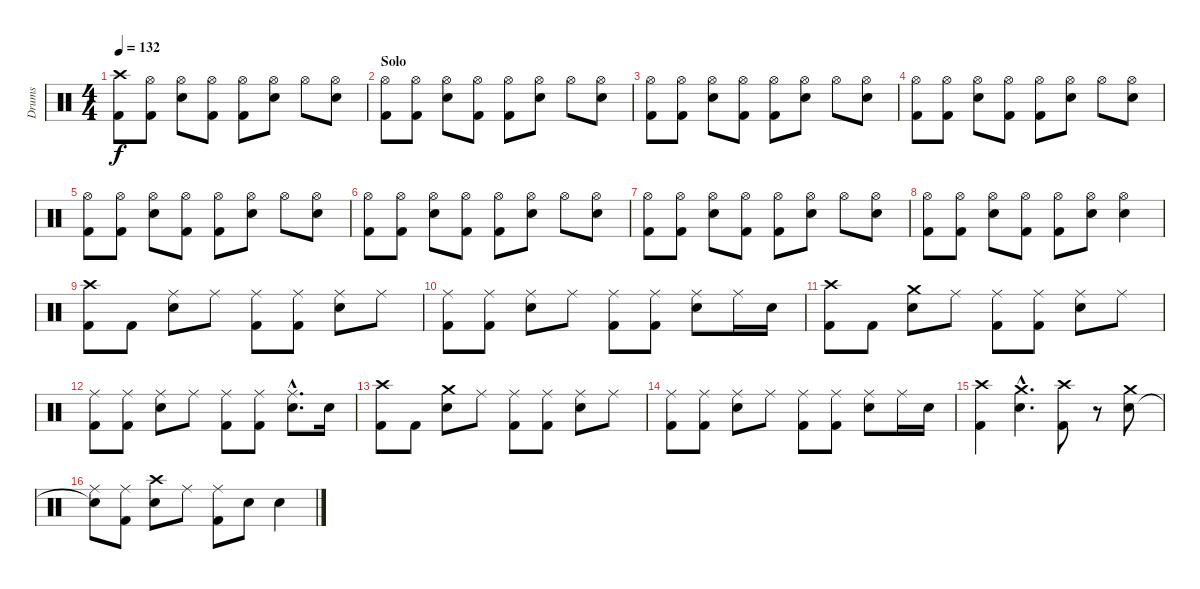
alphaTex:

\track ("Drums" "Drums") {instrument percussion}
\staff {score}
\articulation defaults
\ts (4 4)
\tempo 132
\clef neutral
\ks c
("Crash high (hit)" "Kick (hit) 2").8{dy f} ("Hi-Hat (open)" "Kick (hit) 2").8 ("Hi-Hat (open)" "Electric Snare (hit)").8 ("Hi-Hat (open)" "Kick (hit) 2").8 ("Hi-Hat (open)" "Kick (hit) 2").8 ("Hi-Hat (open)" "Electric Snare (hit)").8 "Hi-Hat (open)".8 ("Hi-Hat (open)" "Electric Snare (hit)").8 |
\section ("" "Solo")
("Hi-Hat (open)" "Kick (hit) 2").8 ("Hi-Hat (open)" "Kick (hit) 2").8 ("Hi-Hat (open)" "Electric Snare (hit)").8 ("Hi-Hat (open)" "Kick (hit) 2").8 ("Hi-Hat (open)" "Kick (hit) 2").8 ("Hi-Hat (open)" "Electric Snare (hit)").8 "Hi-Hat (open)".8 ("Hi-Hat (open)" "Electric Snare (hit)").8 |
("Hi-Hat (open)" "Kick (hit) 2").8 ("Hi-Hat (open)" "Kick (hit) 2").8 ("Hi-Hat (open)" "Electric Snare (hit)").8 ("Hi-Hat (open)" "Kick (hit) 2").8 ("Hi-Hat (open)" "Kick (hit) 2").8 ("Hi-Hat (open)" "Electric Snare (hit)").8 "Hi-Hat (open)".8 ("Hi-Hat (open)" "Electric Snare (hit)").8 |
("Hi-Hat (open)" "Kick (hit) 2").8 ("Hi-Hat (open)" "Kick (hit) 2").8 ("Hi-Hat (open)" "Electric Snare (hit)").8 ("Hi-Hat (open)" "Kick (hit) 2").8 ("Hi-Hat (open)" "Kick (hit) 2").8 ("Hi-Hat (open)" "Electric Snare (hit)").8 "Hi-Hat (open)".8 ("Hi-Hat (open)" "Electric Snare (hit)").8 |
("Hi-Hat (open)" "Kick (hit) 2").8 ("Hi-Hat (open)" "Kick (hit) 2").8 ("Hi-Hat (open)" "Electric Snare (hit)").8 ("Hi-Hat (open)" "Kick (hit) 2").8 ("Hi-Hat (open)" "Kick (hit) 2").8 ("Hi-Hat (open)" "Electric Snare (hit)").8 "Hi-Hat (open)".8 ("Hi-Hat (open)" "Electric Snare (hit)").8 |
("Hi-Hat (open)" "Kick (hit) 2").8 ("Hi-Hat (open)" "Kick (hit) 2").8 ("Hi-Hat (open)" "Electric Snare (hit)").8 ("Hi-Hat (open)" "Kick (hit) 2").8 ("Hi-Hat (open)" "Kick (hit) 2").8 ("Hi-Hat (open)" "Electric Snare (hit)").8 "Hi-Hat (open)".8 ("Hi-Hat (open)" "Electric Snare (hit)").8 |
("Hi-Hat (open)" "Kick (hit) 2").8 ("Hi-Hat (open)" "Kick (hit) 2").8 ("Hi-Hat (open)" "Electric Snare (hit)").8 ("Hi-Hat (open)" "Kick (hit) 2").8 ("Hi-Hat (open)" "Kick (hit) 2").8 ("Hi-Hat (open)" "Electric Snare (hit)").8 "Hi-Hat (open)".8 ("Hi-Hat (open)" "Electric Snare (hit)").8 |
("Hi-Hat (open)" "Kick (hit) 2").8 ("Hi-Hat (open)" "Kick (hit) 2").8 ("Hi-Hat (open)" "Electric Snare (hit)").8 ("Hi-Hat (open)" "Kick (hit) 2").8 ("Hi-Hat (open)" "Kick (hit) 2").8 ("Hi-Hat (open)" "Electric Snare (hit)").8 ("Hi-Hat (open)" "Electric Snare (hit)").4 |
("Crash high (hit)" "Kick (hit) 2").8 "Kick (hit) 2".8 ("Ride (middle)" "Electric Snare (hit)").8 "Ride (middle)".8 ("Ride (middle)" "Kick (hit) 2").8 ("Ride (middle)" "Kick (hit) 2").8 ("Ride (middle)" "Electric Snare (hit)").8 "Ride (middle)".8 |
("Ride (middle)" "Kick (hit) 2").8 ("Ride (middle)" "Kick (hit) 2").8 ("Ride (middle)" "Electric Snare (hit)").8 "Ride (middle)".8 ("Ride (middle)" "Kick (hit) 2").8 ("Ride (middle)" "Kick (hit) 2").8 ("Ride (middle)" "Electric Snare (hit)").8 "Ride (middle)".16 "Electric Snare (hit)".16 |
("Crash high (hit)" "Kick (hit) 2").8 "Kick (hit) 2".8 ("Crash medium (hit)" "Electric Snare (hit)").8 "Ride (middle)".8 ("Ride (middle)" "Kick (hit) 2").8 ("Ride (middle)" "Kick (hit) 2").8 ("Ride (middle)" "Electric Snare (hit)").8 "Ride (middle)".8 |
("Ride (middle)" "Kick (hit) 2").8 ("Ride (middle)" "Kick (hit) 2").8 ("Ride (middle)" "Electric Snare (hit)").8 "Ride (middle)".8 ("Ride (middle)" "Kick (hit) 2").8 ("Ride (middle)" "Kick (hit) 2").8 ("Ride (middle)"{hac} "Electric Snare (hit)"{hac}).8{d} "Electric Snare (hit)".16 |
("Crash high (hit)" "Kick (hit) 2").8 "Kick (hit) 2".8 ("Crash medium (hit)" "Electric Snare (hit)").8 "Ride (middle)".8 ("Ride (middle)" "Kick (hit) 2").8 ("Ride (middle)" "Kick (hit) 2").8 ("Ride (middle)" "Electric Snare (hit)").8 "Ride (middle)".8 |
("Ride (middle)" "Kick (hit) 2").8 ("Ride (middle)" "Kick (hit) 2").8 ("Ride (middle)" "Electric Snare (hit)").8 "Ride (middle)".8 ("Ride (middle)" "Kick (hit) 2").8 ("Ride (middle)" "Kick (hit) 2").8 ("Ride (middle)" "Electric Snare (hit)").8 "Ride (middle)".16 "Electric Snare (hit)".16 |
("Crash high (hit)" "Kick (hit) 2").4 ("Crash medium (hit)"{hac} "Electric Snare (hit)"{hac}).4{d} ("Crash high (hit)" "Kick (hit) 2").8 r.8 ("Crash medium (hit)" "Electric Snare (hit)").8 |
("Ride (middle)" "Snare (hit)"{t}).8 ("Ride (middle)" "Kick (hit) 2").8 ("Crash high (hit)" "Electric Snare (hit)").8 "Ride (middle)".8 ("Ride (middle)" "Kick (hit) 2").8 "Electric Snare (hit)".8 "Electric Snare (hit)".4
